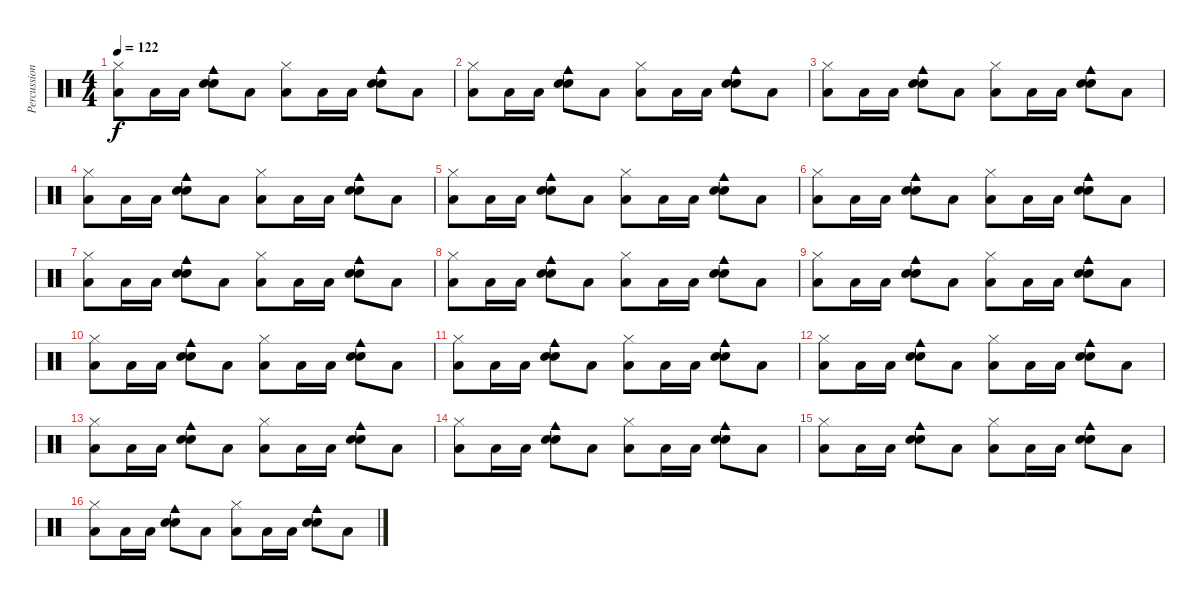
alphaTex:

\track ("Percussion" "Percussion") {instrument percussion}
\staff {score}
\articulation defaults
\ts (4 4)
\tempo 122
\clef neutral
\ks c
("Hi-Hat (closed)" "Low Tom (hit)").8{dy f} "Low Tom (hit)".16 "Low Tom (hit)".16 ("Snare (hit) 2" "Electric Snare (hit)" "Cowbell medium (hit)").8 "Low Tom (hit)".8 ("Hi-Hat (closed)" "Low Tom (hit)").8 "Low Tom (hit)".16 "Low Tom (hit)".16 ("Snare (hit) 2" "Electric Snare (hit)" "Cowbell medium (hit)").8 "Low Tom (hit)".8 |
("Hi-Hat (closed)" "Low Tom (hit)").8 "Low Tom (hit)".16 "Low Tom (hit)".16 ("Snare (hit) 2" "Electric Snare (hit)" "Cowbell medium (hit)").8 "Low Tom (hit)".8 ("Hi-Hat (closed)" "Low Tom (hit)").8 "Low Tom (hit)".16 "Low Tom (hit)".16 ("Snare (hit) 2" "Electric Snare (hit)" "Cowbell medium (hit)").8 "Low Tom (hit)".8 |
("Hi-Hat (closed)" "Low Tom (hit)").8 "Low Tom (hit)".16 "Low Tom (hit)".16 ("Snare (hit) 2" "Electric Snare (hit)" "Cowbell medium (hit)").8 "Low Tom (hit)".8 ("Hi-Hat (closed)" "Low Tom (hit)").8 "Low Tom (hit)".16 "Low Tom (hit)".16 ("Snare (hit) 2" "Electric Snare (hit)" "Cowbell medium (hit)").8 "Low Tom (hit)".8 |
("Hi-Hat (closed)" "Low Tom (hit)").8 "Low Tom (hit)".16 "Low Tom (hit)".16 ("Snare (hit) 2" "Electric Snare (hit)" "Cowbell medium (hit)").8 "Low Tom (hit)".8 ("Hi-Hat (closed)" "Low Tom (hit)").8 "Low Tom (hit)".16 "Low Tom (hit)".16 ("Snare (hit) 2" "Electric Snare (hit)" "Cowbell medium (hit)").8 "Low Tom (hit)".8 |
("Hi-Hat (closed)" "Low Tom (hit)").8 "Low Tom (hit)".16 "Low Tom (hit)".16 ("Snare (hit) 2" "Electric Snare (hit)" "Cowbell medium (hit)").8 "Low Tom (hit)".8 ("Hi-Hat (closed)" "Low Tom (hit)").8 "Low Tom (hit)".16 "Low Tom (hit)".16 ("Snare (hit) 2" "Electric Snare (hit)" "Cowbell medium (hit)").8 "Low Tom (hit)".8 |
("Hi-Hat (closed)" "Low Tom (hit)").8 "Low Tom (hit)".16 "Low Tom (hit)".16 ("Snare (hit) 2" "Electric Snare (hit)" "Cowbell medium (hit)").8 "Low Tom (hit)".8 ("Hi-Hat (closed)" "Low Tom (hit)").8 "Low Tom (hit)".16 "Low Tom (hit)".16 ("Snare (hit) 2" "Electric Snare (hit)" "Cowbell medium (hit)").8 "Low Tom (hit)".8 |
("Hi-Hat (closed)" "Low Tom (hit)").8 "Low Tom (hit)".16 "Low Tom (hit)".16 ("Snare (hit) 2" "Electric Snare (hit)" "Cowbell medium (hit)").8 "Low Tom (hit)".8 ("Hi-Hat (closed)" "Low Tom (hit)").8 "Low Tom (hit)".16 "Low Tom (hit)".16 ("Snare (hit) 2" "Electric Snare (hit)" "Cowbell medium (hit)").8 "Low Tom (hit)".8 |
("Hi-Hat (closed)" "Low Tom (hit)").8 "Low Tom (hit)".16 "Low Tom (hit)".16 ("Snare (hit) 2" "Electric Snare (hit)" "Cowbell medium (hit)").8 "Low Tom (hit)".8 ("Hi-Hat (closed)" "Low Tom (hit)").8 "Low Tom (hit)".16 "Low Tom (hit)".16 ("Snare (hit) 2" "Electric Snare (hit)" "Cowbell medium (hit)").8 "Low Tom (hit)".8 |
("Hi-Hat (closed)" "Low Tom (hit)").8 "Low Tom (hit)".16 "Low Tom (hit)".16 ("Snare (hit) 2" "Electric Snare (hit)" "Cowbell medium (hit)").8 "Low Tom (hit)".8 ("Hi-Hat (closed)" "Low Tom (hit)").8 "Low Tom (hit)".16 "Low Tom (hit)".16 ("Snare (hit) 2" "Electric Snare (hit)" "Cowbell medium (hit)").8 "Low Tom (hit)".8 |
("Hi-Hat (closed)" "Low Tom (hit)").8 "Low Tom (hit)".16 "Low Tom (hit)".16 ("Snare (hit) 2" "Electric Snare (hit)" "Cowbell medium (hit)").8 "Low Tom (hit)".8 ("Hi-Hat (closed)" "Low Tom (hit)").8 "Low Tom (hit)".16 "Low Tom (hit)".16 ("Snare (hit) 2" "Electric Snare (hit)" "Cowbell medium (hit)").8 "Low Tom (hit)".8 |
("Hi-Hat (closed)" "Low Tom (hit)").8 "Low Tom (hit)".16 "Low Tom (hit)".16 ("Snare (hit) 2" "Electric Snare (hit)" "Cowbell medium (hit)").8 "Low Tom (hit)".8 ("Hi-Hat (closed)" "Low Tom (hit)").8 "Low Tom (hit)".16 "Low Tom (hit)".16 ("Snare (hit) 2" "Electric Snare (hit)" "Cowbell medium (hit)").8 "Low Tom (hit)".8 |
("Hi-Hat (closed)" "Low Tom (hit)").8 "Low Tom (hit)".16 "Low Tom (hit)".16 ("Snare (hit) 2" "Electric Snare (hit)" "Cowbell medium (hit)").8 "Low Tom (hit)".8 ("Hi-Hat (closed)" "Low Tom (hit)").8 "Low Tom (hit)".16 "Low Tom (hit)".16 ("Snare (hit) 2" "Electric Snare (hit)" "Cowbell medium (hit)").8 "Low Tom (hit)".8 |
("Hi-Hat (closed)" "Low Tom (hit)").8 "Low Tom (hit)".16 "Low Tom (hit)".16 ("Snare (hit) 2" "Electric Snare (hit)" "Cowbell medium (hit)").8 "Low Tom (hit)".8 ("Hi-Hat (closed)" "Low Tom (hit)").8 "Low Tom (hit)".16 "Low Tom (hit)".16 ("Snare (hit) 2" "Electric Snare (hit)" "Cowbell medium (hit)").8 "Low Tom (hit)".8 |
("Hi-Hat (closed)" "Low Tom (hit)").8 "Low Tom (hit)".16 "Low Tom (hit)".16 ("Snare (hit) 2" "Electric Snare (hit)" "Cowbell medium (hit)").8 "Low Tom (hit)".8 ("Hi-Hat (closed)" "Low Tom (hit)").8 "Low Tom (hit)".16 "Low Tom (hit)".16 ("Snare (hit) 2" "Electric Snare (hit)" "Cowbell medium (hit)").8 "Low Tom (hit)".8 |
("Hi-Hat (closed)" "Low Tom (hit)").8 "Low Tom (hit)".16 "Low Tom (hit)".16 ("Snare (hit) 2" "Electric Snare (hit)" "Cowbell medium (hit)").8 "Low Tom (hit)".8 ("Hi-Hat (closed)" "Low Tom (hit)").8 "Low Tom (hit)".16 "Low Tom (hit)".16 ("Snare (hit) 2" "Electric Snare (hit)" "Cowbell medium (hit)").8 "Low Tom (hit)".8 |
("Hi-Hat (closed)" "Low Tom (hit)").8 "Low Tom (hit)".16 "Low Tom (hit)".16 ("Snare (hit) 2" "Electric Snare (hit)" "Cowbell medium (hit)").8 "Low Tom (hit)".8 ("Hi-Hat (closed)" "Low Tom (hit)").8 "Low Tom (hit)".16 "Low Tom (hit)".16 ("Snare (hit) 2" "Electric Snare (hit)" "Cowbell medium (hit)").8 "Low Tom (hit)".8
